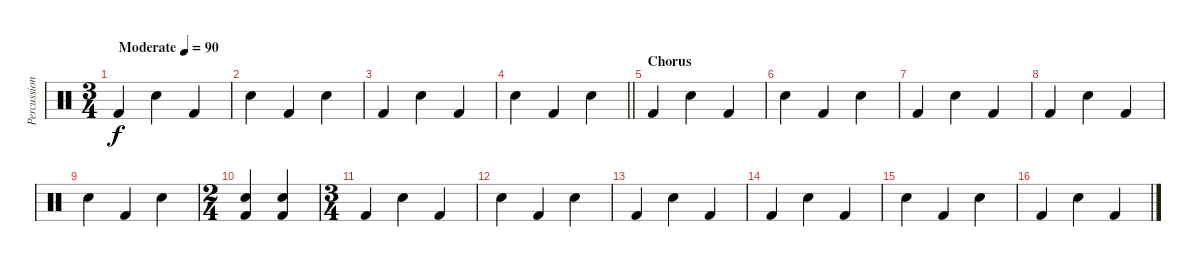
\track ("Percussion" "Percussion") {instrument percussion}
\staff {score}
\articulation defaults
\ts (3 4)
\tempo (90 "Moderate")
\clef neutral
\ks c "Kick (hit) 2".4{dy f} "Snare (hit) 2".4 "Kick (hit) 2".4
|
"Snare (hit) 2".4 "Kick (hit) 2".4 "Snare (hit) 2".4 |
"Kick (hit) 2".4 "Snare (hit) 2".4 "Kick (hit) 2".4 |
\barLineRight lightlight "Snare (hit) 2".4 "Kick (hit) 2".4 "Snare (hit) 2".4
|
\section ("" "Chorus")
"Kick (hit) 2".4 "Snare (hit) 2".4 "Kick (hit) 2".4 |
"Snare (hit) 2".4 "Kick (hit) 2".4 "Snare (hit) 2".4 |
"Kick (hit) 2".4 "Snare (hit) 2".4 "Kick (hit) 2".4 |
"Kick (hit) 2".4 "Snare (hit) 2".4 "Kick (hit) 2".4 |
"Snare (hit) 2".4 "Kick (hit) 2".4 "Snare (hit) 2".4 |
\ts (2 4)
("Snare (hit) 2" "Kick (hit) 2").4 ("Snare (hit) 2" "Kick (hit) 2").4 |
\ts (3 4)
"Kick (hit) 2".4 "Snare (hit) 2".4 "Kick (hit) 2".4 |
"Snare (hit) 2".4 "Kick (hit) 2".4 "Snare (hit) 2".4 |
"Kick (hit) 2".4 "Snare (hit) 2".4 "Kick (hit) 2".4 |
"Kick (hit) 2".4 "Snare (hit) 2".4 "Kick (hit) 2".4 |
"Snare (hit) 2".4 "Kick (hit) 2".4 "Snare (hit) 2".4 |
"Kick (hit) 2".4 "Snare (hit) 2".4 "Kick (hit) 2".4
